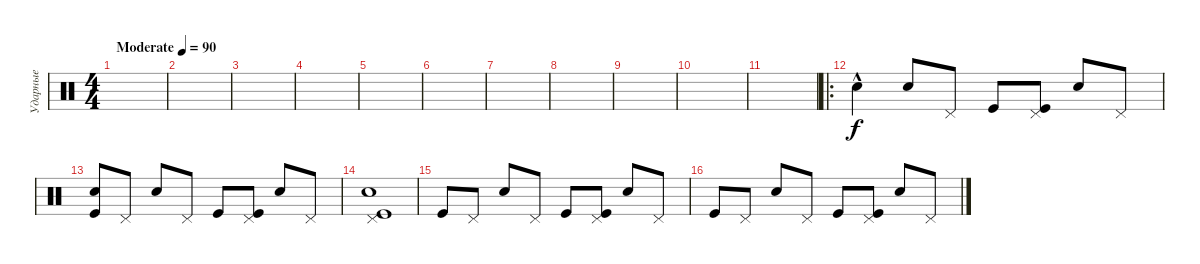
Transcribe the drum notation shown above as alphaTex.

\track ("Ударные" "Ударные") {instrument percussion}
\staff {score}
\articulation defaults
\ts (4 4)
\tempo (90 "Moderate")
\clef neutral
\ks c
|
|
|
|
|
|
|
|
|
|
|
\ro "Snare (hit) 2"{hac}.4 "Electric Snare (hit)".8{dy f} "Pedal Hi-Hat (hit)".8 "Kick (hit)".8
("Kick (hit)" "Pedal Hi-Hat (hit)").8 "Electric Snare (hit)".8 "Pedal Hi-Hat (hit)".8 |
("Kick (hit)" "Snare (hit) 2").8 "Pedal Hi-Hat (hit)".8 "Electric Snare (hit)".8 "Pedal Hi-Hat (hit)".8 "Kick (hit)".8 ("Kick (hit)" "Pedal Hi-Hat (hit)").8 "Electric Snare (hit)".8 "Pedal Hi-Hat (hit)".8 |
("Kick (hit)" "Pedal Hi-Hat (hit)" "Snare (hit) 2").1 |
"Kick (hit)".8 "Pedal Hi-Hat (hit)".8 "Electric Snare (hit)".8 "Pedal Hi-Hat (hit)".8 "Kick (hit)".8 ("Kick (hit)" "Pedal Hi-Hat (hit)").8 "Electric Snare (hit)".8 "Pedal Hi-Hat (hit)".8 |
"Kick (hit)".8 "Pedal Hi-Hat (hit)".8 "Electric Snare (hit)".8 "Pedal Hi-Hat (hit)".8 "Kick (hit)".8 ("Kick (hit)" "Pedal Hi-Hat (hit)").8 "Electric Snare (hit)".8 "Pedal Hi-Hat (hit)".8
